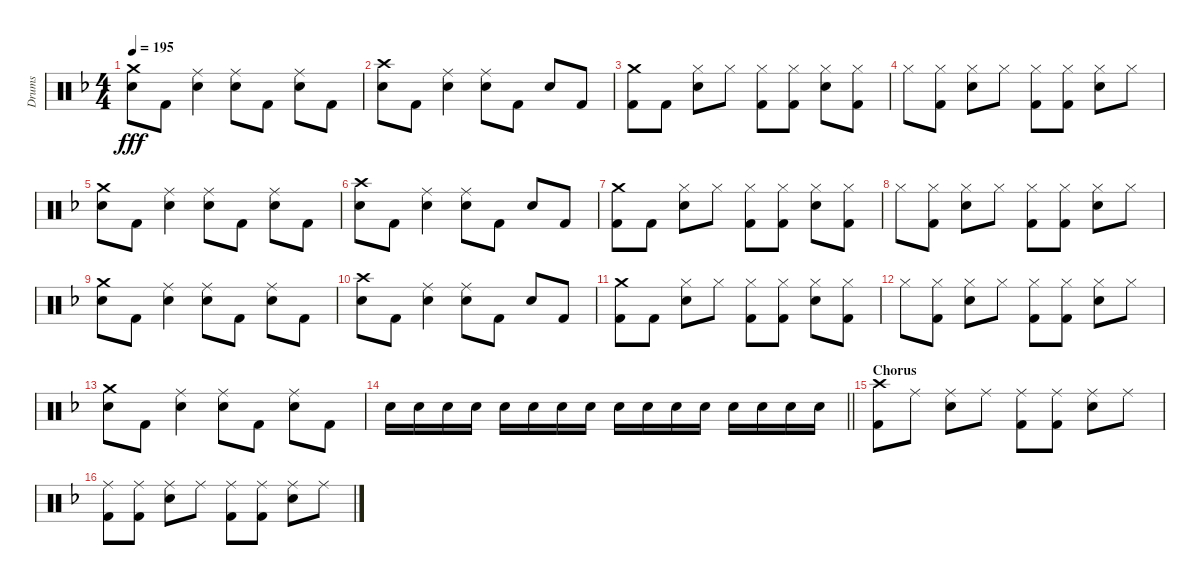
\track ("Drums" "Drums") {instrument percussion}
\staff {score}
\articulation defaults
\ts (4 4)
\tempo 195
\clef neutral
\ks f
("Crash medium (hit)" "Electric Snare (hit)").8{dy fff} "Kick (hit) 2".8 ("Ride (middle)" "Electric Snare (hit)").4 ("Ride (middle)" "Electric Snare (hit)").8 "Kick (hit) 2".8 ("Ride (middle)" "Electric Snare (hit)").8 "Kick (hit) 2".8 |
("Crash high (hit)" "Electric Snare (hit)").8 "Kick (hit) 2".8 ("Ride (middle)" "Electric Snare (hit)").4 ("Ride (middle)" "Electric Snare (hit)").8 "Kick (hit) 2".8 "Electric Snare (hit)".8 "Kick (hit) 2".8 |
("Crash medium (hit)" "Kick (hit) 2").8 "Kick (hit) 2".8 ("Hi-Hat (closed)" "Electric Snare (hit)").8 "Hi-Hat (closed)".8 ("Hi-Hat (closed)" "Kick (hit) 2").8 ("Hi-Hat (closed)" "Kick (hit) 2").8 ("Hi-Hat (closed)" "Electric Snare (hit)").8 ("Hi-Hat (closed)" "Kick (hit) 2").8 |
"Hi-Hat (closed)".8 ("Hi-Hat (closed)" "Kick (hit) 2").8 ("Hi-Hat (closed)" "Electric Snare (hit)").8 "Hi-Hat (closed)".8 ("Hi-Hat (closed)" "Kick (hit) 2").8 ("Hi-Hat (closed)" "Kick (hit) 2").8 ("Hi-Hat (closed)" "Electric Snare (hit)").8 "Hi-Hat (closed)".8 |
("Crash medium (hit)" "Electric Snare (hit)").8 "Kick (hit) 2".8 ("Ride (middle)" "Electric Snare (hit)").4 ("Ride (middle)" "Electric Snare (hit)").8 "Kick (hit) 2".8 ("Ride (middle)" "Electric Snare (hit)").8 "Kick (hit) 2".8 |
("Crash high (hit)" "Electric Snare (hit)").8 "Kick (hit) 2".8 ("Ride (middle)" "Electric Snare (hit)").4 ("Ride (middle)" "Electric Snare (hit)").8 "Kick (hit) 2".8 "Electric Snare (hit)".8 "Kick (hit) 2".8 |
("Crash medium (hit)" "Kick (hit) 2").8 "Kick (hit) 2".8 ("Hi-Hat (closed)" "Electric Snare (hit)").8 "Hi-Hat (closed)".8 ("Hi-Hat (closed)" "Kick (hit) 2").8 ("Hi-Hat (closed)" "Kick (hit) 2").8 ("Hi-Hat (closed)" "Electric Snare (hit)").8 ("Hi-Hat (closed)" "Kick (hit) 2").8 |
"Hi-Hat (closed)".8 ("Hi-Hat (closed)" "Kick (hit) 2").8 ("Hi-Hat (closed)" "Electric Snare (hit)").8 "Hi-Hat (closed)".8 ("Hi-Hat (closed)" "Kick (hit) 2").8 ("Hi-Hat (closed)" "Kick (hit) 2").8 ("Hi-Hat (closed)" "Electric Snare (hit)").8 "Hi-Hat (closed)".8 |
("Crash medium (hit)" "Electric Snare (hit)").8 "Kick (hit) 2".8 ("Ride (middle)" "Electric Snare (hit)").4 ("Ride (middle)" "Electric Snare (hit)").8 "Kick (hit) 2".8 ("Ride (middle)" "Electric Snare (hit)").8 "Kick (hit) 2".8 |
("Crash high (hit)" "Electric Snare (hit)").8 "Kick (hit) 2".8 ("Ride (middle)" "Electric Snare (hit)").4 ("Ride (middle)" "Electric Snare (hit)").8 "Kick (hit) 2".8 "Electric Snare (hit)".8 "Kick (hit) 2".8 |
("Crash medium (hit)" "Kick (hit) 2").8 "Kick (hit) 2".8 ("Hi-Hat (closed)" "Electric Snare (hit)").8 "Hi-Hat (closed)".8 ("Hi-Hat (closed)" "Kick (hit) 2").8 ("Hi-Hat (closed)" "Kick (hit) 2").8 ("Hi-Hat (closed)" "Electric Snare (hit)").8 ("Hi-Hat (closed)" "Kick (hit) 2").8 |
"Hi-Hat (closed)".8 ("Hi-Hat (closed)" "Kick (hit) 2").8 ("Hi-Hat (closed)" "Electric Snare (hit)").8 "Hi-Hat (closed)".8 ("Hi-Hat (closed)" "Kick (hit) 2").8 ("Hi-Hat (closed)" "Kick (hit) 2").8 ("Hi-Hat (closed)" "Electric Snare (hit)").8 "Hi-Hat (closed)".8 |
("Crash medium (hit)" "Electric Snare (hit)").8 "Kick (hit) 2".8 ("Ride (middle)" "Electric Snare (hit)").4 ("Ride (middle)" "Electric Snare (hit)").8 "Kick (hit) 2".8 ("Ride (middle)" "Electric Snare (hit)").8 "Kick (hit) 2".8 |
\barLineRight lightlight "Electric Snare (hit)".16 "Electric Snare (hit)".16 "Electric Snare (hit)".16 "Electric Snare (hit)".16 "Electric Snare (hit)".16 "Electric Snare (hit)".16 "Electric Snare (hit)".16 "Electric Snare (hit)".16 "Electric Snare (hit)".16 "Electric Snare (hit)".16 "Electric Snare (hit)".16 "Electric Snare (hit)".16 "Electric Snare (hit)".16 "Electric Snare (hit)".16 "Electric Snare (hit)".16 "Electric Snare (hit)".16
|
\section ("" "Chorus")
("Crash high (hit)" "Kick (hit) 2").8 "Ride (middle)".8 ("Ride (middle)" "Electric Snare (hit)").8 "Ride (middle)".8 ("Ride (middle)" "Kick (hit) 2").8 ("Ride (middle)" "Kick (hit) 2").8 ("Ride (middle)" "Electric Snare (hit)").8 "Ride (middle)".8 |
("Ride (middle)" "Kick (hit) 2").8 ("Ride (middle)" "Kick (hit) 2").8 ("Ride (middle)" "Electric Snare (hit)").8 "Ride (middle)".8 ("Ride (middle)" "Kick (hit) 2").8 ("Ride (middle)" "Kick (hit) 2").8 ("Ride (middle)" "Electric Snare (hit)").8 "Ride (middle)".8
